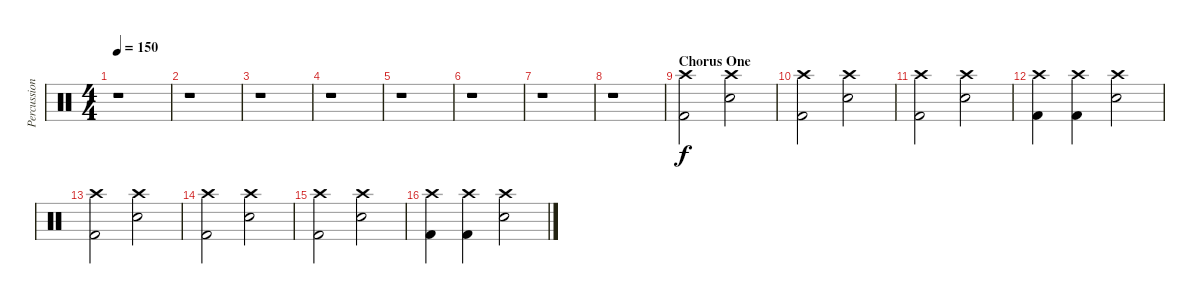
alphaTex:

\track ("Percussion [Patrick Wilson]" "Percussion") {instrument percussion}
\staff {score}
\articulation defaults
\ts (4 4)
\tempo 150
\clef neutral
\ks c
r.1{dy f} |
r.1 |
r.1 |
r.1 |
r.1 |
r.1 |
r.1 |
r.1 |
\section ("" "Chorus One")
("Crash high (hit)" "Kick (hit) 2").2{volume 13} ("Crash high (hit)" "Snare (hit) 2").2 |
("Crash high (hit)" "Kick (hit) 2").2 ("Crash high (hit)" "Snare (hit) 2").2 |
("Crash high (hit)" "Kick (hit) 2").2 ("Crash high (hit)" "Snare (hit) 2").2 |
("Crash high (hit)" "Kick (hit) 2").4 ("Crash high (hit)" "Kick (hit) 2").4 ("Crash high (hit)" "Snare (hit) 2").2 |
("Crash high (hit)" "Kick (hit) 2").2{volume 13} ("Crash high (hit)" "Snare (hit) 2").2 |
("Crash high (hit)" "Kick (hit) 2").2 ("Crash high (hit)" "Snare (hit) 2").2 |
("Crash high (hit)" "Kick (hit) 2").2 ("Crash high (hit)" "Snare (hit) 2").2 |
("Crash high (hit)" "Kick (hit) 2").4 ("Crash high (hit)" "Kick (hit) 2").4 ("Crash high (hit)" "Snare (hit) 2").2
